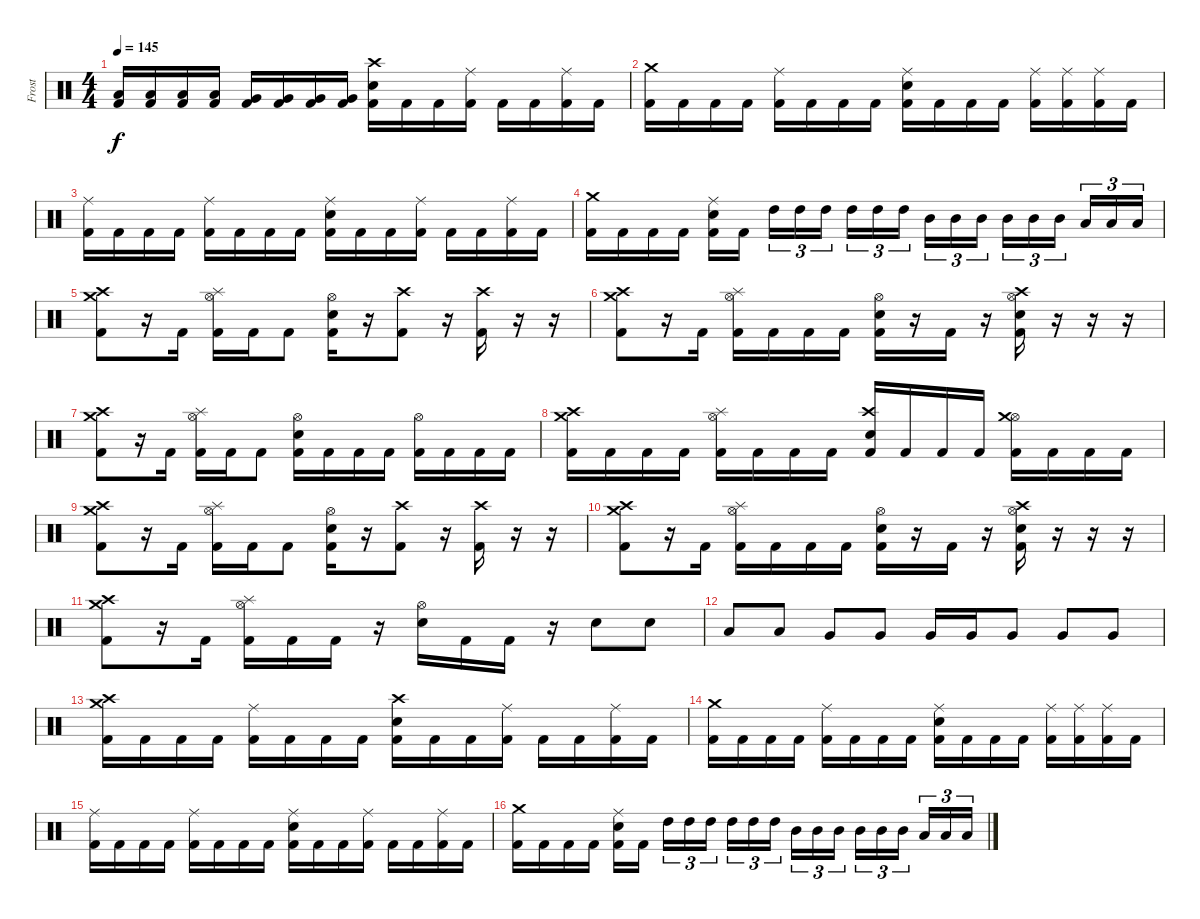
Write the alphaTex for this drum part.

\track ("Frost" "Frost") {instrument percussion}
\staff {score}
\articulation defaults
\ts (4 4)
\tempo 145
\clef neutral
\ks c
("Low Tom (hit)" "Kick (hit) 2").16{dy f} ("Low Tom (hit)" "Kick (hit) 2").16 ("Low Tom (hit)" "Kick (hit) 2").16 ("Low Tom (hit)" "Kick (hit) 2").16 ("Very Low Tom (hit)" "Kick (hit) 2").16 ("Very Low Tom (hit)" "Kick (hit) 2").16 ("Very Low Tom (hit)" "Kick (hit) 2").16 ("Very Low Tom (hit)" "Kick (hit) 2").16 ("Crash high (hit)" "Electric Snare (hit)" "Kick (hit) 2").16 "Kick (hit) 2".16 "Kick (hit) 2".16 ("Ride (middle)" "Kick (hit) 2").16 "Kick (hit) 2".16 "Kick (hit) 2".16 ("Ride (middle)" "Kick (hit) 2").16 "Kick (hit) 2".16 |
("Crash medium (hit)" "Kick (hit) 2").16 "Kick (hit) 2".16 "Kick (hit) 2".16 "Kick (hit) 2".16 ("Ride (middle)" "Kick (hit) 2").16 "Kick (hit) 2".16 "Kick (hit) 2".16 "Kick (hit) 2".16 ("Ride (middle)" "Electric Snare (hit)" "Kick (hit) 2").16 "Kick (hit) 2".16 "Kick (hit) 2".16 "Kick (hit) 2".16 ("Ride (middle)" "Kick (hit) 2").16 ("Ride (middle)" "Kick (hit) 2").16 ("Ride (middle)" "Kick (hit) 2").16 "Kick (hit) 2".16 |
("Ride (middle)" "Kick (hit) 2").16 "Kick (hit) 2".16 "Kick (hit) 2".16 "Kick (hit) 2".16 ("Ride (middle)" "Kick (hit) 2").16 "Kick (hit) 2".16 "Kick (hit) 2".16 "Kick (hit) 2".16 ("Ride (middle)" "Electric Snare (hit)" "Kick (hit) 2").16 "Kick (hit) 2".16 "Kick (hit) 2".16 ("Ride (middle)" "Kick (hit) 2").16 "Kick (hit) 2".16 "Kick (hit) 2".16 ("Ride (middle)" "Kick (hit) 2").16 "Kick (hit) 2".16 |
("Crash medium (hit)" "Kick (hit) 2").16 "Kick (hit) 2".16 "Kick (hit) 2".16 "Kick (hit) 2".16 ("Ride (middle)" "Electric Snare (hit)" "Kick (hit) 2").16 "Kick (hit) 2".16 "High Tom (hit)".16{tu (3 2)} "High Tom (hit)".16{tu (3 2)} "High Tom (hit)".16{tu (3 2)} "High Tom (hit)".16{tu (3 2)} "High Tom (hit)".16{tu (3 2)} "High Tom (hit)".16{tu (3 2)} "Mid Tom (hit)".16{tu (3 2)} "Mid Tom (hit)".16{tu (3 2)} "Mid Tom (hit)".16{tu (3 2)} "Mid Tom (hit)".16{tu (3 2)} "Mid Tom (hit)".16{tu (3 2)} "Mid Tom (hit)".16{tu (3 2)} "Low Tom (hit)".16{tu (3 2)} "Low Tom (hit)".16{tu (3 2)} "Low Tom (hit)".16{tu (3 2)} |
("Crash medium (hit)" "Crash high (hit)" "Kick (hit) 2").8 r.16 "Kick (hit) 2".16 ("Hi-Hat (open)" "Splash (hit)" "Kick (hit) 2").16 "Kick (hit) 2".16 "Kick (hit) 2".8 ("Hi-Hat (open)" "Electric Snare (hit)" "Kick (hit) 2").16 r.16 ("Crash high (hit)" "Kick (hit) 2").8 r.16 ("Crash high (hit)" "Kick (hit) 2").16 r.16 r.16 |
("Crash medium (hit)" "Crash high (hit)" "Kick (hit) 2").8 r.16 "Kick (hit) 2".16 ("Hi-Hat (open)" "Splash (hit)" "Kick (hit) 2").16 "Kick (hit) 2".16 "Kick (hit) 2".16 "Kick (hit) 2".16 ("Hi-Hat (open)" "Electric Snare (hit)" "Kick (hit) 2").16 r.16 "Kick (hit) 2".16 r.16 ("Hi-Hat (open)" "Crash high (hit)" "Electric Snare (hit)" "Kick (hit) 2").16 r.16 r.16 r.16 |
("Crash medium (hit)" "Crash high (hit)" "Kick (hit) 2").8 r.16 "Kick (hit) 2".16 ("Hi-Hat (open)" "Splash (hit)" "Kick (hit) 2").16 "Kick (hit) 2".16 "Kick (hit) 2".8 ("Hi-Hat (open)" "Electric Snare (hit)" "Kick (hit) 2").16 "Kick (hit) 2".16 "Kick (hit) 2".16 "Kick (hit) 2".16 ("Hi-Hat (open)" "Kick (hit) 2").16 "Kick (hit) 2".16 "Kick (hit) 2".16 "Kick (hit) 2".16 |
("Crash medium (hit)" "Crash high (hit)" "Kick (hit) 2").16 "Kick (hit) 2".16 "Kick (hit) 2".16 "Kick (hit) 2".16 ("Hi-Hat (open)" "Splash (hit)" "Kick (hit) 2").16 "Kick (hit) 2".16 "Kick (hit) 2".16 "Kick (hit) 2".16 ("Crash high (hit)" "Electric Snare (hit)" "Kick (hit) 2").16 "Kick (hit) 2".16 "Kick (hit) 2".16 "Kick (hit) 2".16 ("Hi-Hat (open)" "Crash medium (hit)" "Kick (hit) 2").16 "Kick (hit) 2".16 "Kick (hit) 2".16 "Kick (hit) 2".16 |
("Crash medium (hit)" "Crash high (hit)" "Kick (hit) 2").8 r.16 "Kick (hit) 2".16 ("Hi-Hat (open)" "Splash (hit)" "Kick (hit) 2").16 "Kick (hit) 2".16 "Kick (hit) 2".8 ("Hi-Hat (open)" "Electric Snare (hit)" "Kick (hit) 2").16 r.16 ("Crash high (hit)" "Kick (hit) 2").8 r.16 ("Crash high (hit)" "Kick (hit) 2").16 r.16 r.16 |
("Crash medium (hit)" "Crash high (hit)" "Kick (hit) 2").8 r.16 "Kick (hit) 2".16 ("Hi-Hat (open)" "Splash (hit)" "Kick (hit) 2").16 "Kick (hit) 2".16 "Kick (hit) 2".16 "Kick (hit) 2".16 ("Hi-Hat (open)" "Electric Snare (hit)" "Kick (hit) 2").16 r.16 "Kick (hit) 2".16 r.16 ("Hi-Hat (open)" "Crash high (hit)" "Electric Snare (hit)" "Kick (hit) 2").16 r.16 r.16 r.16 |
("Crash medium (hit)" "Crash high (hit)" "Kick (hit) 2").8 r.16 "Kick (hit) 2".16 ("Hi-Hat (open)" "Splash (hit)" "Kick (hit) 2").16 "Kick (hit) 2".16 "Kick (hit) 2".16 r.16 ("Hi-Hat (open)" "Electric Snare (hit)").16 "Kick (hit) 2".16 "Kick (hit) 2".16 r.16 "Electric Snare (hit)".8 "Electric Snare (hit)".8 |
"Low Tom (hit)".8 "Low Tom (hit)".8 "Very Low Tom (hit)".8 "Very Low Tom (hit)".8 "Very Low Tom (hit)".16 "Very Low Tom (hit)".16 "Very Low Tom (hit)".8 "Very Low Tom (hit)".8 "Very Low Tom (hit)".8 |
("Crash medium (hit)" "Crash high (hit)" "Kick (hit) 2").16 "Kick (hit) 2".16 "Kick (hit) 2".16 "Kick (hit) 2".16 ("Ride (middle)" "Kick (hit) 2").16 "Kick (hit) 2".16 "Kick (hit) 2".16 "Kick (hit) 2".16 ("Crash high (hit)" "Electric Snare (hit)" "Kick (hit) 2").16 "Kick (hit) 2".16 "Kick (hit) 2".16 ("Ride (middle)" "Kick (hit) 2").16 "Kick (hit) 2".16 "Kick (hit) 2".16 ("Ride (middle)" "Kick (hit) 2").16 "Kick (hit) 2".16 |
("Crash medium (hit)" "Kick (hit) 2").16 "Kick (hit) 2".16 "Kick (hit) 2".16 "Kick (hit) 2".16 ("Ride (middle)" "Kick (hit) 2").16 "Kick (hit) 2".16 "Kick (hit) 2".16 "Kick (hit) 2".16 ("Ride (middle)" "Electric Snare (hit)" "Kick (hit) 2").16 "Kick (hit) 2".16 "Kick (hit) 2".16 "Kick (hit) 2".16 ("Ride (middle)" "Kick (hit) 2").16 ("Ride (middle)" "Kick (hit) 2").16 ("Ride (middle)" "Kick (hit) 2").16 "Kick (hit) 2".16 |
("Ride (middle)" "Kick (hit) 2").16 "Kick (hit) 2".16 "Kick (hit) 2".16 "Kick (hit) 2".16 ("Ride (middle)" "Kick (hit) 2").16 "Kick (hit) 2".16 "Kick (hit) 2".16 "Kick (hit) 2".16 ("Ride (middle)" "Electric Snare (hit)" "Kick (hit) 2").16 "Kick (hit) 2".16 "Kick (hit) 2".16 ("Ride (middle)" "Kick (hit) 2").16 "Kick (hit) 2".16 "Kick (hit) 2".16 ("Ride (middle)" "Kick (hit) 2").16 "Kick (hit) 2".16 |
("Crash medium (hit)" "Kick (hit) 2").16 "Kick (hit) 2".16 "Kick (hit) 2".16 "Kick (hit) 2".16 ("Ride (middle)" "Electric Snare (hit)" "Kick (hit) 2").16 "Kick (hit) 2".16 "High Tom (hit)".16{tu (3 2)} "High Tom (hit)".16{tu (3 2)} "High Tom (hit)".16{tu (3 2)} "High Tom (hit)".16{tu (3 2)} "High Tom (hit)".16{tu (3 2)} "High Tom (hit)".16{tu (3 2)} "Mid Tom (hit)".16{tu (3 2)} "Mid Tom (hit)".16{tu (3 2)} "Mid Tom (hit)".16{tu (3 2)} "Mid Tom (hit)".16{tu (3 2)} "Mid Tom (hit)".16{tu (3 2)} "Mid Tom (hit)".16{tu (3 2)} "Low Tom (hit)".16{tu (3 2)} "Low Tom (hit)".16{tu (3 2)} "Low Tom (hit)".16{tu (3 2)}
